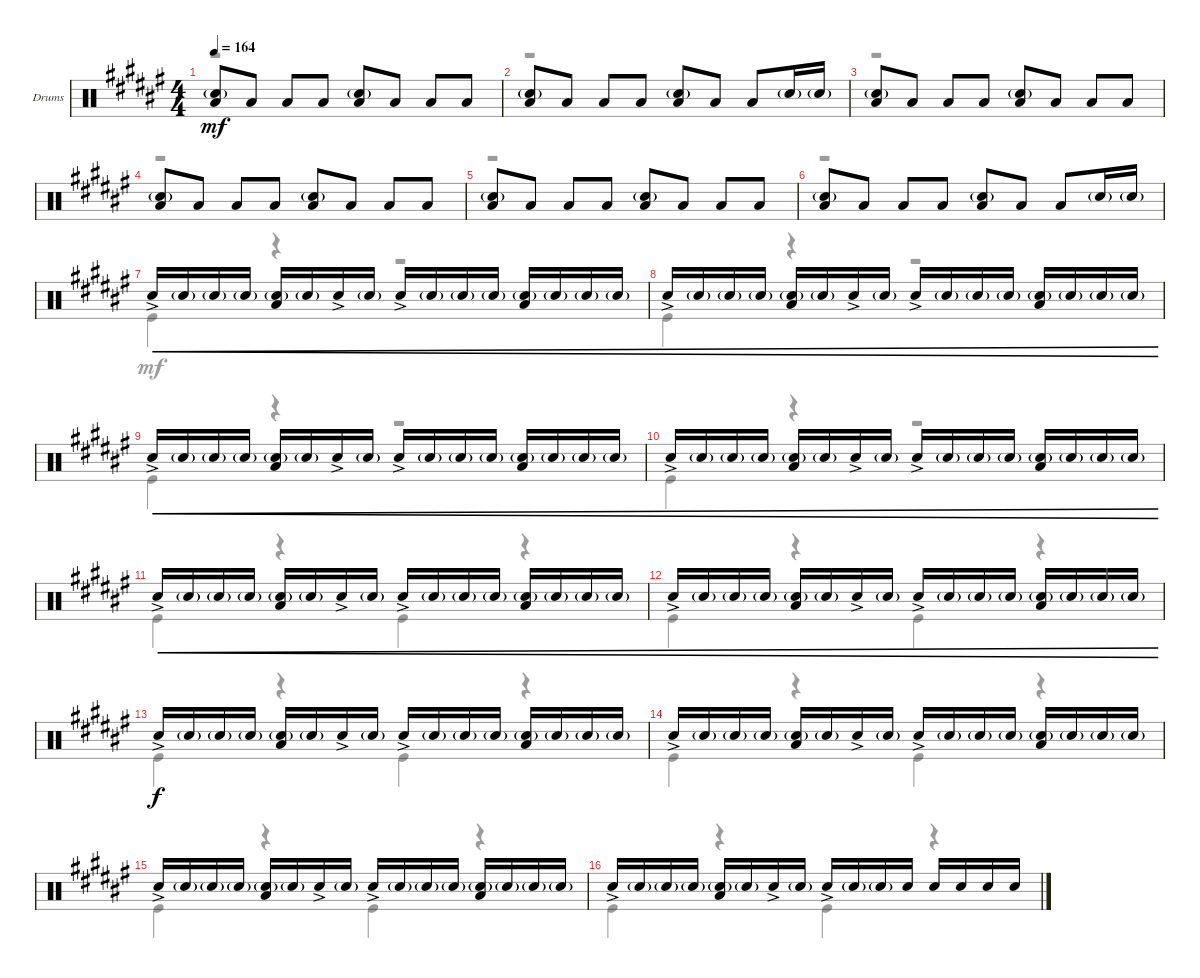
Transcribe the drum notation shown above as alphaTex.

\defaultSystemsLayout 4
\bracketExtendMode groupsimilarinstruments
\firstSystemTrackNameOrientation horizontal
\otherSystemsTrackNameOrientation horizontal
\track ("Drums" "Drums") {instrument percussion}
\staff {score}
\articulation defaults
\voice
\ts (4 4)
\tempo 164
\clef neutral
\ks f#
("Snare (hit) 2"{g} "Low Tom (hit)").8{dy mf} "Low Tom (hit)".8 "Low Tom (hit)".8 "Low Tom (hit)".8 ("Snare (hit) 2"{g} "Low Tom (hit)").8 "Low Tom (hit)".8 "Low Tom (hit)".8 "Low Tom (hit)".8 |
("Snare (hit) 2"{g} "Low Tom (hit)").8 "Low Tom (hit)".8 "Low Tom (hit)".8 "Low Tom (hit)".8 ("Snare (hit) 2"{g} "Low Tom (hit)").8 "Low Tom (hit)".8 "Low Tom (hit)".8 "Snare (hit) 2"{g}.16 "Snare (hit) 2"{g}.16 |
("Snare (hit) 2"{g} "Low Tom (hit)").8 "Low Tom (hit)".8 "Low Tom (hit)".8 "Low Tom (hit)".8 ("Snare (hit) 2"{g} "Low Tom (hit)").8 "Low Tom (hit)".8 "Low Tom (hit)".8 "Low Tom (hit)".8 |
("Snare (hit) 2"{g} "Low Tom (hit)").8 "Low Tom (hit)".8 "Low Tom (hit)".8 "Low Tom (hit)".8 ("Snare (hit) 2"{g} "Low Tom (hit)").8 "Low Tom (hit)".8 "Low Tom (hit)".8 "Low Tom (hit)".8 |
("Snare (hit) 2"{g} "Low Tom (hit)").8 "Low Tom (hit)".8 "Low Tom (hit)".8 "Low Tom (hit)".8 ("Snare (hit) 2"{g} "Low Tom (hit)").8 "Low Tom (hit)".8 "Low Tom (hit)".8 "Low Tom (hit)".8 |
("Snare (hit) 2"{g} "Low Tom (hit)").8 "Low Tom (hit)".8 "Low Tom (hit)".8 "Low Tom (hit)".8 ("Snare (hit) 2"{g} "Low Tom (hit)").8 "Low Tom (hit)".8 "Low Tom (hit)".8 "Snare (hit) 2"{g}.16 "Snare (hit) 2"{g}.16 |
"Snare (hit) 2"{ac}.16{cre} "Snare (hit) 2"{g}.16{cre} "Snare (hit) 2"{g}.16{cre} "Snare (hit) 2"{g}.16{cre} ("Low Tom (hit)" "Snare (hit) 2"{g}).16{cre} "Snare (hit) 2"{g}.16{cre} "Snare (hit) 2"{ac}.16{cre} "Snare (hit) 2"{g}.16{cre} "Snare (hit) 2"{ac}.16{cre} "Snare (hit) 2"{g}.16{cre} "Snare (hit) 2"{g}.16{cre} "Snare (hit) 2"{g}.16{cre} ("Low Tom (hit)" "Snare (hit) 2"{g}).16{cre} "Snare (hit) 2"{g}.16{cre} "Snare (hit) 2"{g}.16{cre} "Snare (hit) 2"{g}.16{cre} |
"Snare (hit) 2"{ac}.16{cre} "Snare (hit) 2"{g}.16{cre} "Snare (hit) 2"{g}.16{cre} "Snare (hit) 2"{g}.16{cre} ("Low Tom (hit)" "Snare (hit) 2"{g}).16{cre} "Snare (hit) 2"{g}.16{cre} "Snare (hit) 2"{ac}.16{cre} "Snare (hit) 2"{g}.16{cre} "Snare (hit) 2"{ac}.16{cre} "Snare (hit) 2"{g}.16{cre} "Snare (hit) 2"{g}.16{cre} "Snare (hit) 2"{g}.16{cre} ("Low Tom (hit)" "Snare (hit) 2"{g}).16{cre} "Snare (hit) 2"{g}.16{cre} "Snare (hit) 2"{g}.16{cre} "Snare (hit) 2"{g}.16{cre} |
"Snare (hit) 2"{ac}.16{cre} "Snare (hit) 2"{g}.16{cre} "Snare (hit) 2"{g}.16{cre} "Snare (hit) 2"{g}.16{cre} ("Low Tom (hit)" "Snare (hit) 2"{g}).16{cre} "Snare (hit) 2"{g}.16{cre} "Snare (hit) 2"{ac}.16{cre} "Snare (hit) 2"{g}.16{cre} "Snare (hit) 2"{ac}.16{cre} "Snare (hit) 2"{g}.16{cre} "Snare (hit) 2"{g}.16{cre} "Snare (hit) 2"{g}.16{cre} ("Low Tom (hit)" "Snare (hit) 2"{g}).16{cre} "Snare (hit) 2"{g}.16{cre} "Snare (hit) 2"{g}.16{cre} "Snare (hit) 2"{g}.16{cre} |
"Snare (hit) 2"{ac}.16{cre} "Snare (hit) 2"{g}.16{cre} "Snare (hit) 2"{g}.16{cre} "Snare (hit) 2"{g}.16{cre} ("Low Tom (hit)" "Snare (hit) 2"{g}).16{cre} "Snare (hit) 2"{g}.16{cre} "Snare (hit) 2"{ac}.16{cre} "Snare (hit) 2"{g}.16{cre} "Snare (hit) 2"{ac}.16{cre} "Snare (hit) 2"{g}.16{cre} "Snare (hit) 2"{g}.16{cre} "Snare (hit) 2"{g}.16{cre} ("Low Tom (hit)" "Snare (hit) 2"{g}).16{cre} "Snare (hit) 2"{g}.16{cre} "Snare (hit) 2"{g}.16{cre} "Snare (hit) 2"{g}.16{cre} |
"Snare (hit) 2"{ac}.16{cre} "Snare (hit) 2"{g}.16{cre} "Snare (hit) 2"{g}.16{cre} "Snare (hit) 2"{g}.16{cre} ("Low Tom (hit)" "Snare (hit) 2"{g}).16{cre} "Snare (hit) 2"{g}.16{cre} "Snare (hit) 2"{ac}.16{cre} "Snare (hit) 2"{g}.16{cre} "Snare (hit) 2"{ac}.16{cre} "Snare (hit) 2"{g}.16{cre} "Snare (hit) 2"{g}.16{cre} "Snare (hit) 2"{g}.16{cre} ("Low Tom (hit)" "Snare (hit) 2"{g}).16{cre} "Snare (hit) 2"{g}.16{cre} "Snare (hit) 2"{g}.16{cre} "Snare (hit) 2"{g}.16{cre} |
"Snare (hit) 2"{ac}.16{cre} "Snare (hit) 2"{g}.16{cre} "Snare (hit) 2"{g}.16{cre} "Snare (hit) 2"{g}.16{cre} ("Low Tom (hit)" "Snare (hit) 2"{g}).16{cre} "Snare (hit) 2"{g}.16{cre} "Snare (hit) 2"{ac}.16{cre} "Snare (hit) 2"{g}.16{cre} "Snare (hit) 2"{ac}.16{cre} "Snare (hit) 2"{g}.16{cre} "Snare (hit) 2"{g}.16{cre} "Snare (hit) 2"{g}.16{cre} ("Low Tom (hit)" "Snare (hit) 2"{g}).16{cre} "Snare (hit) 2"{g}.16{cre} "Snare (hit) 2"{g}.16{cre} "Snare (hit) 2"{g}.16{cre} |
"Snare (hit) 2"{ac}.16{dy f} "Snare (hit) 2"{g}.16 "Snare (hit) 2"{g}.16 "Snare (hit) 2"{g}.16 ("Low Tom (hit)" "Snare (hit) 2"{g}).16 "Snare (hit) 2"{g}.16 "Snare (hit) 2"{ac}.16 "Snare (hit) 2"{g}.16 "Snare (hit) 2"{ac}.16 "Snare (hit) 2"{g}.16 "Snare (hit) 2"{g}.16 "Snare (hit) 2"{g}.16 ("Low Tom (hit)" "Snare (hit) 2"{g}).16 "Snare (hit) 2"{g}.16 "Snare (hit) 2"{g}.16 "Snare (hit) 2"{g}.16 |
"Snare (hit) 2"{ac}.16 "Snare (hit) 2"{g}.16 "Snare (hit) 2"{g}.16 "Snare (hit) 2"{g}.16 ("Low Tom (hit)" "Snare (hit) 2"{g}).16 "Snare (hit) 2"{g}.16 "Snare (hit) 2"{ac}.16 "Snare (hit) 2"{g}.16 "Snare (hit) 2"{ac}.16 "Snare (hit) 2"{g}.16 "Snare (hit) 2"{g}.16 "Snare (hit) 2"{g}.16 ("Low Tom (hit)" "Snare (hit) 2"{g}).16 "Snare (hit) 2"{g}.16 "Snare (hit) 2"{g}.16 "Snare (hit) 2"{g}.16 |
"Snare (hit) 2"{ac}.16 "Snare (hit) 2"{g}.16 "Snare (hit) 2"{g}.16 "Snare (hit) 2"{g}.16 ("Low Tom (hit)" "Snare (hit) 2"{g}).16 "Snare (hit) 2"{g}.16 "Snare (hit) 2"{ac}.16 "Snare (hit) 2"{g}.16 "Snare (hit) 2"{ac}.16 "Snare (hit) 2"{g}.16 "Snare (hit) 2"{g}.16 "Snare (hit) 2"{g}.16 ("Low Tom (hit)" "Snare (hit) 2"{g}).16 "Snare (hit) 2"{g}.16 "Snare (hit) 2"{g}.16 "Snare (hit) 2"{g}.16 |
"Snare (hit) 2"{ac}.16 "Snare (hit) 2"{g}.16 "Snare (hit) 2"{g}.16 "Snare (hit) 2"{g}.16 ("Low Tom (hit)" "Snare (hit) 2"{g}).16 "Snare (hit) 2"{g}.16 "Snare (hit) 2"{ac}.16 "Snare (hit) 2"{g}.16 "Snare (hit) 2"{ac}.16 "Snare (hit) 2"{g}.16 "Snare (hit) 2"{g}.16 "Snare (hit) 2".16 "Snare (hit) 2".16 "Snare (hit) 2".16 "Snare (hit) 2".16 "Snare (hit) 2".16
\voice
\clef neutral
\ottava regular
\simile none
\ks f#
r.1{dy mf} |
r.1 |
r.1 |
r.1 |
r.1 |
r.1 |
"Kick (hit)".4 r.4 r.2 |
"Kick (hit)".4 r.4 r.2 |
"Kick (hit)".4 r.4 r.2 |
"Kick (hit)".4 r.4 r.2 |
"Kick (hit)".4 r.4 "Kick (hit)".4 r.4 |
"Kick (hit)".4 r.4 "Kick (hit)".4 r.4 |
"Kick (hit)".4{dy f} r.4 "Kick (hit)".4 r.4 |
"Kick (hit)".4 r.4 "Kick (hit)".4 r.4 |
"Kick (hit)".4 r.4 "Kick (hit)".4 r.4 |
"Kick (hit)".4 r.4 "Kick (hit)".4 r.4
